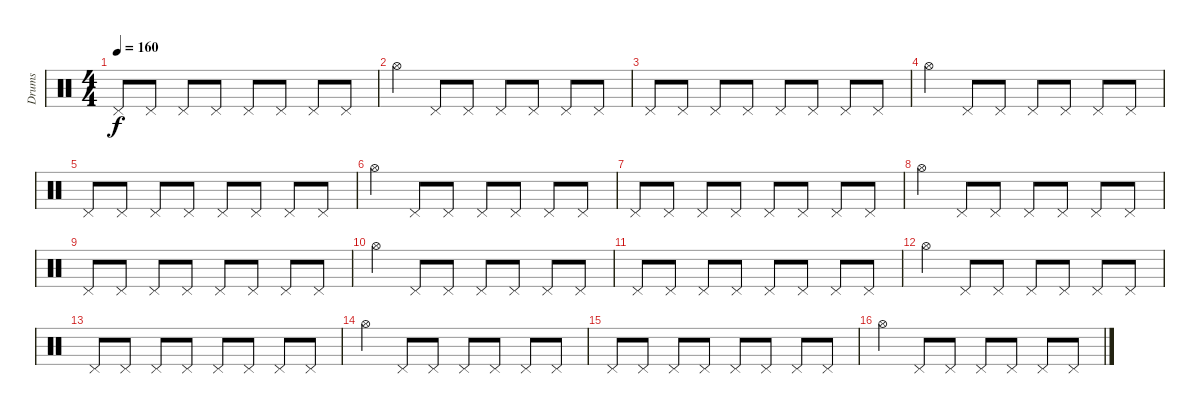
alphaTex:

\track ("Drums" "Drums") {instrument percussion}
\staff {score}
\articulation defaults
\ts (4 4)
\tempo 160
\clef neutral
\ks c "Pedal Hi-Hat (hit)".8{dy f} "Pedal Hi-Hat (hit)".8 "Pedal Hi-Hat (hit)".8 "Pedal Hi-Hat (hit)".8 "Pedal Hi-Hat (hit)".8 "Pedal Hi-Hat (hit)".8 "Pedal Hi-Hat (hit)".8 "Pedal Hi-Hat (hit)".8
|
"Hi-Hat (open)".4 "Pedal Hi-Hat (hit)".8 "Pedal Hi-Hat (hit)".8 "Pedal Hi-Hat (hit)".8 "Pedal Hi-Hat (hit)".8 "Pedal Hi-Hat (hit)".8 "Pedal Hi-Hat (hit)".8 |
"Pedal Hi-Hat (hit)".8 "Pedal Hi-Hat (hit)".8 "Pedal Hi-Hat (hit)".8 "Pedal Hi-Hat (hit)".8 "Pedal Hi-Hat (hit)".8 "Pedal Hi-Hat (hit)".8 "Pedal Hi-Hat (hit)".8 "Pedal Hi-Hat (hit)".8 |
"Hi-Hat (open)".4 "Pedal Hi-Hat (hit)".8 "Pedal Hi-Hat (hit)".8 "Pedal Hi-Hat (hit)".8 "Pedal Hi-Hat (hit)".8 "Pedal Hi-Hat (hit)".8 "Pedal Hi-Hat (hit)".8 |
"Pedal Hi-Hat (hit)".8 "Pedal Hi-Hat (hit)".8 "Pedal Hi-Hat (hit)".8 "Pedal Hi-Hat (hit)".8 "Pedal Hi-Hat (hit)".8 "Pedal Hi-Hat (hit)".8 "Pedal Hi-Hat (hit)".8 "Pedal Hi-Hat (hit)".8 |
"Hi-Hat (open)".4 "Pedal Hi-Hat (hit)".8 "Pedal Hi-Hat (hit)".8 "Pedal Hi-Hat (hit)".8 "Pedal Hi-Hat (hit)".8 "Pedal Hi-Hat (hit)".8 "Pedal Hi-Hat (hit)".8 |
"Pedal Hi-Hat (hit)".8 "Pedal Hi-Hat (hit)".8 "Pedal Hi-Hat (hit)".8 "Pedal Hi-Hat (hit)".8 "Pedal Hi-Hat (hit)".8 "Pedal Hi-Hat (hit)".8 "Pedal Hi-Hat (hit)".8 "Pedal Hi-Hat (hit)".8 |
"Hi-Hat (open)".4 "Pedal Hi-Hat (hit)".8 "Pedal Hi-Hat (hit)".8 "Pedal Hi-Hat (hit)".8 "Pedal Hi-Hat (hit)".8 "Pedal Hi-Hat (hit)".8 "Pedal Hi-Hat (hit)".8 |
"Pedal Hi-Hat (hit)".8 "Pedal Hi-Hat (hit)".8 "Pedal Hi-Hat (hit)".8 "Pedal Hi-Hat (hit)".8 "Pedal Hi-Hat (hit)".8 "Pedal Hi-Hat (hit)".8 "Pedal Hi-Hat (hit)".8 "Pedal Hi-Hat (hit)".8 |
"Hi-Hat (open)".4 "Pedal Hi-Hat (hit)".8 "Pedal Hi-Hat (hit)".8 "Pedal Hi-Hat (hit)".8 "Pedal Hi-Hat (hit)".8 "Pedal Hi-Hat (hit)".8 "Pedal Hi-Hat (hit)".8 |
"Pedal Hi-Hat (hit)".8 "Pedal Hi-Hat (hit)".8 "Pedal Hi-Hat (hit)".8 "Pedal Hi-Hat (hit)".8 "Pedal Hi-Hat (hit)".8 "Pedal Hi-Hat (hit)".8 "Pedal Hi-Hat (hit)".8 "Pedal Hi-Hat (hit)".8 |
"Hi-Hat (open)".4 "Pedal Hi-Hat (hit)".8 "Pedal Hi-Hat (hit)".8 "Pedal Hi-Hat (hit)".8 "Pedal Hi-Hat (hit)".8 "Pedal Hi-Hat (hit)".8 "Pedal Hi-Hat (hit)".8 |
"Pedal Hi-Hat (hit)".8 "Pedal Hi-Hat (hit)".8 "Pedal Hi-Hat (hit)".8 "Pedal Hi-Hat (hit)".8 "Pedal Hi-Hat (hit)".8 "Pedal Hi-Hat (hit)".8 "Pedal Hi-Hat (hit)".8 "Pedal Hi-Hat (hit)".8 |
"Hi-Hat (open)".4 "Pedal Hi-Hat (hit)".8 "Pedal Hi-Hat (hit)".8 "Pedal Hi-Hat (hit)".8 "Pedal Hi-Hat (hit)".8 "Pedal Hi-Hat (hit)".8 "Pedal Hi-Hat (hit)".8 |
"Pedal Hi-Hat (hit)".8 "Pedal Hi-Hat (hit)".8 "Pedal Hi-Hat (hit)".8 "Pedal Hi-Hat (hit)".8 "Pedal Hi-Hat (hit)".8 "Pedal Hi-Hat (hit)".8 "Pedal Hi-Hat (hit)".8 "Pedal Hi-Hat (hit)".8 |
"Hi-Hat (open)".4 "Pedal Hi-Hat (hit)".8 "Pedal Hi-Hat (hit)".8 "Pedal Hi-Hat (hit)".8 "Pedal Hi-Hat (hit)".8 "Pedal Hi-Hat (hit)".8 "Pedal Hi-Hat (hit)".8
